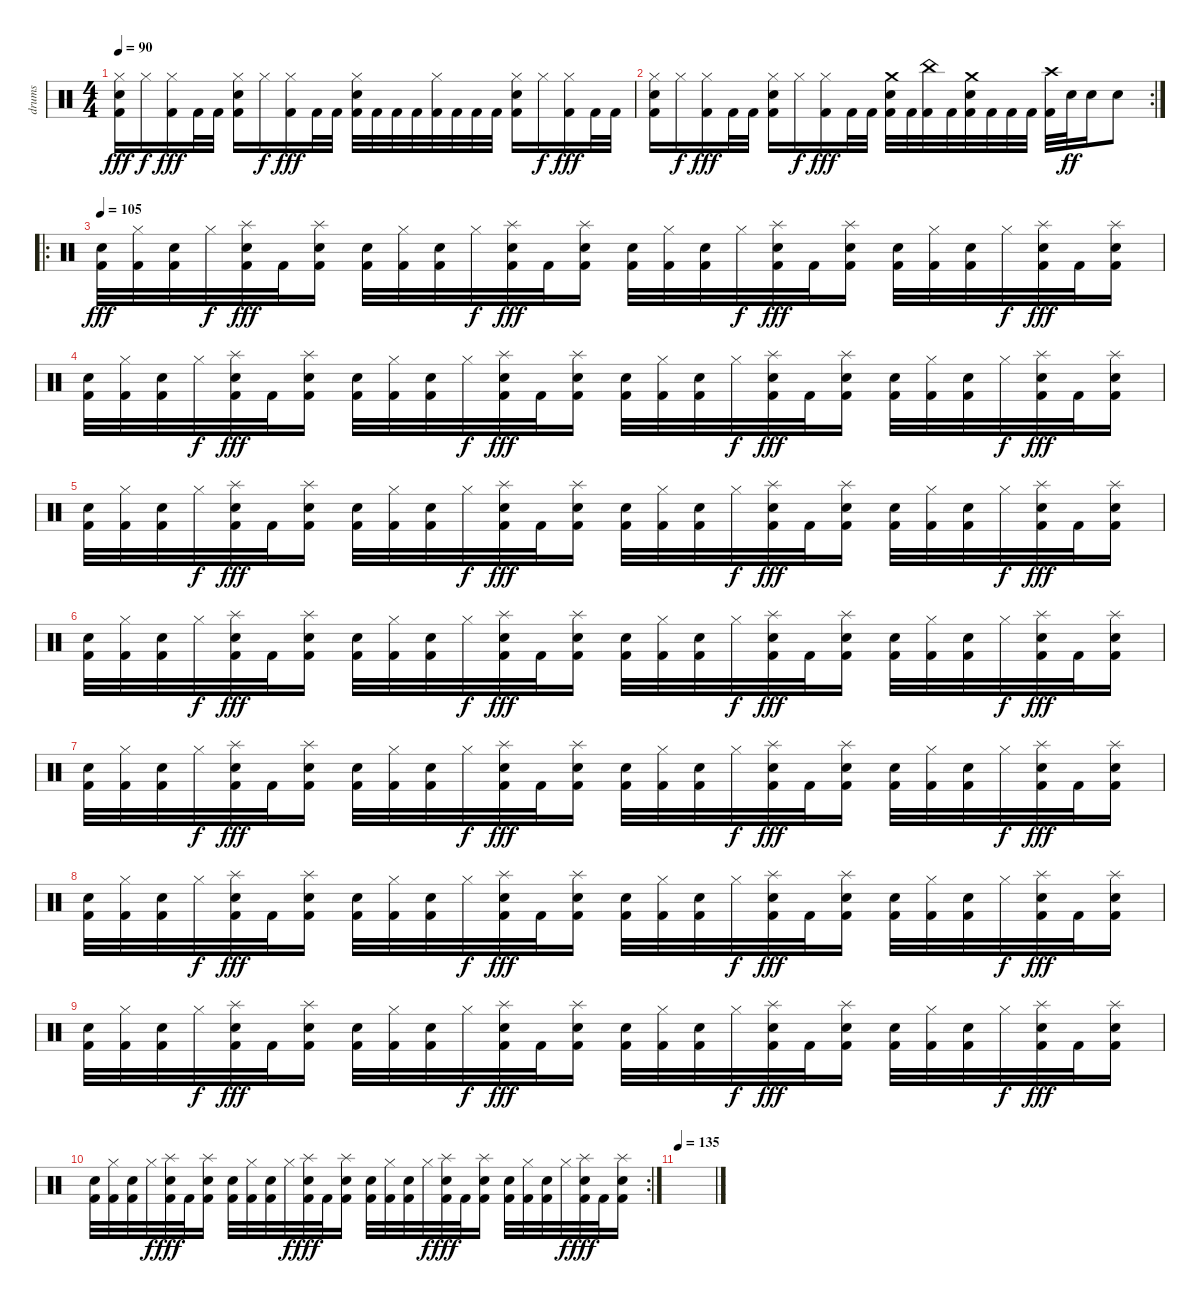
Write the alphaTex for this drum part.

\track ("drums" "drums") {instrument percussion}
\staff {score}
\articulation defaults
\ts (4 4)
\tempo 90
\clef neutral
\ks c
("Hi-Hat (closed)" "Electric Snare (hit)" "Kick (hit) 2").16{dy fff} "Hi-Hat (closed)".16{dy f} ("Hi-Hat (closed)" "Kick (hit) 2").16{dy fff} "Kick (hit) 2".32 "Kick (hit) 2".32 ("Hi-Hat (closed)" "Electric Snare (hit)" "Kick (hit) 2").16 "Hi-Hat (closed)".16{dy f} ("Hi-Hat (closed)" "Kick (hit) 2").16{dy fff} "Kick (hit) 2".32 "Kick (hit) 2".32 ("Hi-Hat (closed)" "Electric Snare (hit)" "Kick (hit) 2").32 "Kick (hit) 2".32 "Kick (hit) 2".32 "Kick (hit) 2".32 ("Hi-Hat (closed)" "Kick (hit) 2").32 "Kick (hit) 2".32 "Kick (hit) 2".32 "Kick (hit) 2".32 ("Hi-Hat (closed)" "Electric Snare (hit)" "Kick (hit) 2").16 "Hi-Hat (closed)".16{dy f} ("Hi-Hat (closed)" "Kick (hit) 2").16{dy fff} "Kick (hit) 2".32 "Kick (hit) 2".32 |
\rc 2
("Hi-Hat (closed)" "Electric Snare (hit)" "Kick (hit) 2").16 "Hi-Hat (closed)".16{dy f} ("Hi-Hat (closed)" "Kick (hit) 2").16{dy fff} "Kick (hit) 2".32 "Kick (hit) 2".32 ("Hi-Hat (closed)" "Electric Snare (hit)" "Kick (hit) 2").16 "Hi-Hat (closed)".16{dy f} ("Hi-Hat (closed)" "Kick (hit) 2").16{dy fff} "Kick (hit) 2".32 "Kick (hit) 2".32 ("Crash medium (hit)" "Electric Snare (hit)" "Kick (hit) 2").32 "Kick (hit) 2".32 ("China (hit)" "Kick (hit) 2").32 "Kick (hit) 2".32 ("Crash medium (hit)" "Electric Snare (hit)" "Kick (hit) 2").32 "Kick (hit) 2".32 "Kick (hit) 2".32 "Kick (hit) 2".32 ("Crash high (hit)" "Kick (hit) 2").32 "Electric Snare (hit)".32{dy ff} "Electric Snare (hit)".16 "Electric Snare (hit)".8 |
\ro
\tempo 105
("Electric Snare (hit)" "Kick (hit) 2").32{dy fff} ("Hi-Hat (closed)" "Kick (hit) 2").32 ("Electric Snare (hit)" "Kick (hit) 2").32 "Hi-Hat (closed)".32{dy f} ("Splash (hit)" "Electric Snare (hit)" "Kick (hit) 2").32{dy fff} "Kick (hit) 2".32 ("Splash (hit)" "Electric Snare (hit)" "Kick (hit) 2").16 ("Electric Snare (hit)" "Kick (hit) 2").32 ("Hi-Hat (closed)" "Kick (hit) 2").32 ("Electric Snare (hit)" "Kick (hit) 2").32 "Hi-Hat (closed)".32{dy f} ("Splash (hit)" "Electric Snare (hit)" "Kick (hit) 2").32{dy fff} "Kick (hit) 2".32 ("Splash (hit)" "Electric Snare (hit)" "Kick (hit) 2").16 ("Electric Snare (hit)" "Kick (hit) 2").32 ("Hi-Hat (closed)" "Kick (hit) 2").32 ("Electric Snare (hit)" "Kick (hit) 2").32 "Hi-Hat (closed)".32{dy f} ("Splash (hit)" "Electric Snare (hit)" "Kick (hit) 2").32{dy fff} "Kick (hit) 2".32 ("Splash (hit)" "Electric Snare (hit)" "Kick (hit) 2").16 ("Electric Snare (hit)" "Kick (hit) 2").32 ("Hi-Hat (closed)" "Kick (hit) 2").32 ("Electric Snare (hit)" "Kick (hit) 2").32 "Hi-Hat (closed)".32{dy f} ("Splash (hit)" "Electric Snare (hit)" "Kick (hit) 2").32{dy fff} "Kick (hit) 2".32 ("Splash (hit)" "Electric Snare (hit)" "Kick (hit) 2").16 |
("Electric Snare (hit)" "Kick (hit) 2").32 ("Hi-Hat (closed)" "Kick (hit) 2").32 ("Electric Snare (hit)" "Kick (hit) 2").32 "Hi-Hat (closed)".32{dy f} ("Splash (hit)" "Electric Snare (hit)" "Kick (hit) 2").32{dy fff} "Kick (hit) 2".32 ("Splash (hit)" "Electric Snare (hit)" "Kick (hit) 2").16 ("Electric Snare (hit)" "Kick (hit) 2").32 ("Hi-Hat (closed)" "Kick (hit) 2").32 ("Electric Snare (hit)" "Kick (hit) 2").32 "Hi-Hat (closed)".32{dy f} ("Splash (hit)" "Electric Snare (hit)" "Kick (hit) 2").32{dy fff} "Kick (hit) 2".32 ("Splash (hit)" "Electric Snare (hit)" "Kick (hit) 2").16 ("Electric Snare (hit)" "Kick (hit) 2").32 ("Hi-Hat (closed)" "Kick (hit) 2").32 ("Electric Snare (hit)" "Kick (hit) 2").32 "Hi-Hat (closed)".32{dy f} ("Splash (hit)" "Electric Snare (hit)" "Kick (hit) 2").32{dy fff} "Kick (hit) 2".32 ("Splash (hit)" "Electric Snare (hit)" "Kick (hit) 2").16 ("Electric Snare (hit)" "Kick (hit) 2").32 ("Hi-Hat (closed)" "Kick (hit) 2").32 ("Electric Snare (hit)" "Kick (hit) 2").32 "Hi-Hat (closed)".32{dy f} ("Splash (hit)" "Electric Snare (hit)" "Kick (hit) 2").32{dy fff} "Kick (hit) 2".32 ("Splash (hit)" "Electric Snare (hit)" "Kick (hit) 2").16 |
("Electric Snare (hit)" "Kick (hit) 2").32 ("Hi-Hat (closed)" "Kick (hit) 2").32 ("Electric Snare (hit)" "Kick (hit) 2").32 "Hi-Hat (closed)".32{dy f} ("Splash (hit)" "Electric Snare (hit)" "Kick (hit) 2").32{dy fff} "Kick (hit) 2".32 ("Splash (hit)" "Electric Snare (hit)" "Kick (hit) 2").16 ("Electric Snare (hit)" "Kick (hit) 2").32 ("Hi-Hat (closed)" "Kick (hit) 2").32 ("Electric Snare (hit)" "Kick (hit) 2").32 "Hi-Hat (closed)".32{dy f} ("Splash (hit)" "Electric Snare (hit)" "Kick (hit) 2").32{dy fff} "Kick (hit) 2".32 ("Splash (hit)" "Electric Snare (hit)" "Kick (hit) 2").16 ("Electric Snare (hit)" "Kick (hit) 2").32 ("Hi-Hat (closed)" "Kick (hit) 2").32 ("Electric Snare (hit)" "Kick (hit) 2").32 "Hi-Hat (closed)".32{dy f} ("Splash (hit)" "Electric Snare (hit)" "Kick (hit) 2").32{dy fff} "Kick (hit) 2".32 ("Splash (hit)" "Electric Snare (hit)" "Kick (hit) 2").16 ("Electric Snare (hit)" "Kick (hit) 2").32 ("Hi-Hat (closed)" "Kick (hit) 2").32 ("Electric Snare (hit)" "Kick (hit) 2").32 "Hi-Hat (closed)".32{dy f} ("Splash (hit)" "Electric Snare (hit)" "Kick (hit) 2").32{dy fff} "Kick (hit) 2".32 ("Splash (hit)" "Electric Snare (hit)" "Kick (hit) 2").16 |
("Electric Snare (hit)" "Kick (hit) 2").32 ("Hi-Hat (closed)" "Kick (hit) 2").32 ("Electric Snare (hit)" "Kick (hit) 2").32 "Hi-Hat (closed)".32{dy f} ("Splash (hit)" "Electric Snare (hit)" "Kick (hit) 2").32{dy fff} "Kick (hit) 2".32 ("Splash (hit)" "Electric Snare (hit)" "Kick (hit) 2").16 ("Electric Snare (hit)" "Kick (hit) 2").32 ("Hi-Hat (closed)" "Kick (hit) 2").32 ("Electric Snare (hit)" "Kick (hit) 2").32 "Hi-Hat (closed)".32{dy f} ("Splash (hit)" "Electric Snare (hit)" "Kick (hit) 2").32{dy fff} "Kick (hit) 2".32 ("Splash (hit)" "Electric Snare (hit)" "Kick (hit) 2").16 ("Electric Snare (hit)" "Kick (hit) 2").32 ("Hi-Hat (closed)" "Kick (hit) 2").32 ("Electric Snare (hit)" "Kick (hit) 2").32 "Hi-Hat (closed)".32{dy f} ("Splash (hit)" "Electric Snare (hit)" "Kick (hit) 2").32{dy fff} "Kick (hit) 2".32 ("Splash (hit)" "Electric Snare (hit)" "Kick (hit) 2").16 ("Electric Snare (hit)" "Kick (hit) 2").32 ("Hi-Hat (closed)" "Kick (hit) 2").32 ("Electric Snare (hit)" "Kick (hit) 2").32 "Hi-Hat (closed)".32{dy f} ("Splash (hit)" "Electric Snare (hit)" "Kick (hit) 2").32{dy fff} "Kick (hit) 2".32 ("Splash (hit)" "Electric Snare (hit)" "Kick (hit) 2").16 |
("Electric Snare (hit)" "Kick (hit) 2").32 ("Hi-Hat (closed)" "Kick (hit) 2").32 ("Electric Snare (hit)" "Kick (hit) 2").32 "Hi-Hat (closed)".32{dy f} ("Splash (hit)" "Electric Snare (hit)" "Kick (hit) 2").32{dy fff} "Kick (hit) 2".32 ("Splash (hit)" "Electric Snare (hit)" "Kick (hit) 2").16 ("Electric Snare (hit)" "Kick (hit) 2").32 ("Hi-Hat (closed)" "Kick (hit) 2").32 ("Electric Snare (hit)" "Kick (hit) 2").32 "Hi-Hat (closed)".32{dy f} ("Splash (hit)" "Electric Snare (hit)" "Kick (hit) 2").32{dy fff} "Kick (hit) 2".32 ("Splash (hit)" "Electric Snare (hit)" "Kick (hit) 2").16 ("Electric Snare (hit)" "Kick (hit) 2").32 ("Hi-Hat (closed)" "Kick (hit) 2").32 ("Electric Snare (hit)" "Kick (hit) 2").32 "Hi-Hat (closed)".32{dy f} ("Splash (hit)" "Electric Snare (hit)" "Kick (hit) 2").32{dy fff} "Kick (hit) 2".32 ("Splash (hit)" "Electric Snare (hit)" "Kick (hit) 2").16 ("Electric Snare (hit)" "Kick (hit) 2").32 ("Hi-Hat (closed)" "Kick (hit) 2").32 ("Electric Snare (hit)" "Kick (hit) 2").32 "Hi-Hat (closed)".32{dy f} ("Splash (hit)" "Electric Snare (hit)" "Kick (hit) 2").32{dy fff} "Kick (hit) 2".32 ("Splash (hit)" "Electric Snare (hit)" "Kick (hit) 2").16 |
("Electric Snare (hit)" "Kick (hit) 2").32 ("Hi-Hat (closed)" "Kick (hit) 2").32 ("Electric Snare (hit)" "Kick (hit) 2").32 "Hi-Hat (closed)".32{dy f} ("Splash (hit)" "Electric Snare (hit)" "Kick (hit) 2").32{dy fff} "Kick (hit) 2".32 ("Splash (hit)" "Electric Snare (hit)" "Kick (hit) 2").16 ("Electric Snare (hit)" "Kick (hit) 2").32 ("Hi-Hat (closed)" "Kick (hit) 2").32 ("Electric Snare (hit)" "Kick (hit) 2").32 "Hi-Hat (closed)".32{dy f} ("Splash (hit)" "Electric Snare (hit)" "Kick (hit) 2").32{dy fff} "Kick (hit) 2".32 ("Splash (hit)" "Electric Snare (hit)" "Kick (hit) 2").16 ("Electric Snare (hit)" "Kick (hit) 2").32 ("Hi-Hat (closed)" "Kick (hit) 2").32 ("Electric Snare (hit)" "Kick (hit) 2").32 "Hi-Hat (closed)".32{dy f} ("Splash (hit)" "Electric Snare (hit)" "Kick (hit) 2").32{dy fff} "Kick (hit) 2".32 ("Splash (hit)" "Electric Snare (hit)" "Kick (hit) 2").16 ("Electric Snare (hit)" "Kick (hit) 2").32 ("Hi-Hat (closed)" "Kick (hit) 2").32 ("Electric Snare (hit)" "Kick (hit) 2").32 "Hi-Hat (closed)".32{dy f} ("Splash (hit)" "Electric Snare (hit)" "Kick (hit) 2").32{dy fff} "Kick (hit) 2".32 ("Splash (hit)" "Electric Snare (hit)" "Kick (hit) 2").16 |
("Electric Snare (hit)" "Kick (hit) 2").32 ("Hi-Hat (closed)" "Kick (hit) 2").32 ("Electric Snare (hit)" "Kick (hit) 2").32 "Hi-Hat (closed)".32{dy f} ("Splash (hit)" "Electric Snare (hit)" "Kick (hit) 2").32{dy fff} "Kick (hit) 2".32 ("Splash (hit)" "Electric Snare (hit)" "Kick (hit) 2").16 ("Electric Snare (hit)" "Kick (hit) 2").32 ("Hi-Hat (closed)" "Kick (hit) 2").32 ("Electric Snare (hit)" "Kick (hit) 2").32 "Hi-Hat (closed)".32{dy f} ("Splash (hit)" "Electric Snare (hit)" "Kick (hit) 2").32{dy fff} "Kick (hit) 2".32 ("Splash (hit)" "Electric Snare (hit)" "Kick (hit) 2").16 ("Electric Snare (hit)" "Kick (hit) 2").32 ("Hi-Hat (closed)" "Kick (hit) 2").32 ("Electric Snare (hit)" "Kick (hit) 2").32 "Hi-Hat (closed)".32{dy f} ("Splash (hit)" "Electric Snare (hit)" "Kick (hit) 2").32{dy fff} "Kick (hit) 2".32 ("Splash (hit)" "Electric Snare (hit)" "Kick (hit) 2").16 ("Electric Snare (hit)" "Kick (hit) 2").32 ("Hi-Hat (closed)" "Kick (hit) 2").32 ("Electric Snare (hit)" "Kick (hit) 2").32 "Hi-Hat (closed)".32{dy f} ("Splash (hit)" "Electric Snare (hit)" "Kick (hit) 2").32{dy fff} "Kick (hit) 2".32 ("Splash (hit)" "Electric Snare (hit)" "Kick (hit) 2").16 |
\rc 2
("Electric Snare (hit)" "Kick (hit) 2").32 ("Hi-Hat (closed)" "Kick (hit) 2").32 ("Electric Snare (hit)" "Kick (hit) 2").32 "Hi-Hat (closed)".32{dy f} ("Splash (hit)" "Electric Snare (hit)" "Kick (hit) 2").32{dy fff} "Kick (hit) 2".32 ("Splash (hit)" "Electric Snare (hit)" "Kick (hit) 2").16 ("Electric Snare (hit)" "Kick (hit) 2").32 ("Hi-Hat (closed)" "Kick (hit) 2").32 ("Electric Snare (hit)" "Kick (hit) 2").32 "Hi-Hat (closed)".32{dy f} ("Splash (hit)" "Electric Snare (hit)" "Kick (hit) 2").32{dy fff} "Kick (hit) 2".32 ("Splash (hit)" "Electric Snare (hit)" "Kick (hit) 2").16 ("Electric Snare (hit)" "Kick (hit) 2").32 ("Hi-Hat (closed)" "Kick (hit) 2").32 ("Electric Snare (hit)" "Kick (hit) 2").32 "Hi-Hat (closed)".32{dy f} ("Splash (hit)" "Electric Snare (hit)" "Kick (hit) 2").32{dy fff} "Kick (hit) 2".32 ("Splash (hit)" "Electric Snare (hit)" "Kick (hit) 2").16 ("Electric Snare (hit)" "Kick (hit) 2").32 ("Hi-Hat (closed)" "Kick (hit) 2").32 ("Electric Snare (hit)" "Kick (hit) 2").32 "Hi-Hat (closed)".32{dy f} ("Splash (hit)" "Electric Snare (hit)" "Kick (hit) 2").32{dy fff} "Kick (hit) 2".32 ("Splash (hit)" "Electric Snare (hit)" "Kick (hit) 2").16 |
\tempo 135
